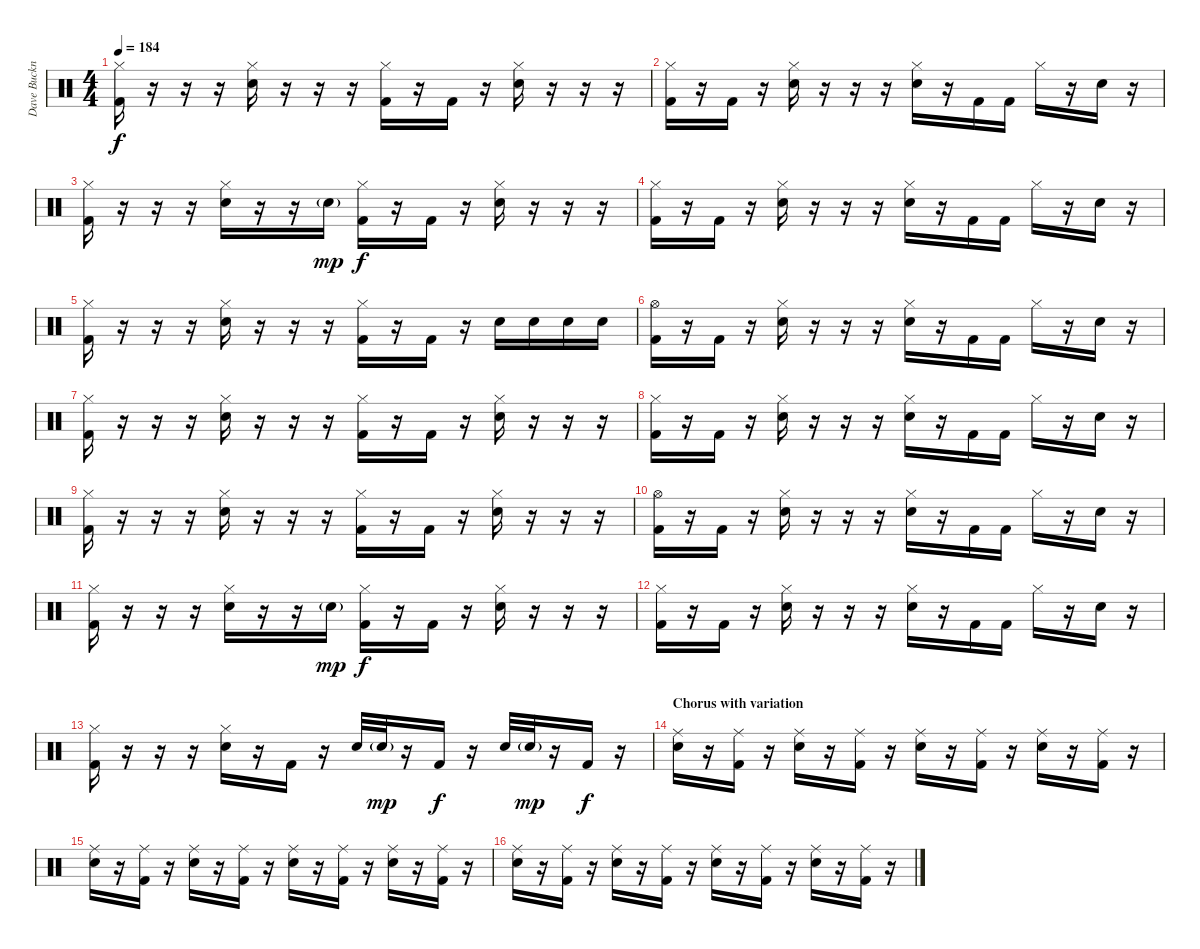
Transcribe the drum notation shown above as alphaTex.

\track ("Dave Buckner" "Dave Buckn") {instrument percussion}
\staff {score}
\articulation defaults
\ts (4 4)
\tempo 184
\clef neutral
\ks c
("Hi-Hat (closed)" "Kick (hit) 2").16{dy f} r.16 r.16 r.16 ("Hi-Hat (closed)" "Snare (hit) 2").16 r.16 r.16 r.16 ("Hi-Hat (closed)" "Kick (hit) 2").16 r.16 "Kick (hit) 2".16 r.16 ("Hi-Hat (closed)" "Snare (hit) 2").16 r.16 r.16 r.16 |
("Hi-Hat (closed)" "Kick (hit) 2").16 r.16 "Kick (hit) 2".16 r.16 ("Hi-Hat (closed)" "Snare (hit) 2").16 r.16 r.16 r.16 ("Hi-Hat (closed)" "Snare (hit) 2").16 r.16 "Kick (hit) 2".16 "Kick (hit) 2".16 "Hi-Hat (closed)".16 r.16 "Snare (hit) 2".16 r.16 |
("Hi-Hat (closed)" "Kick (hit) 2").16 r.16 r.16 r.16 ("Hi-Hat (closed)" "Snare (hit) 2").16 r.16 r.16 "Snare (hit) 2"{g}.16{dy mp} ("Hi-Hat (closed)" "Kick (hit) 2").16{dy f} r.16 "Kick (hit) 2".16 r.16 ("Hi-Hat (closed)" "Snare (hit) 2").16 r.16 r.16 r.16 |
("Hi-Hat (closed)" "Kick (hit) 2").16 r.16 "Kick (hit) 2".16 r.16 ("Hi-Hat (closed)" "Snare (hit) 2").16 r.16 r.16 r.16 ("Hi-Hat (closed)" "Snare (hit) 2").16 r.16 "Kick (hit) 2".16 "Kick (hit) 2".16 "Hi-Hat (closed)".16 r.16 "Snare (hit) 2".16 r.16 |
("Hi-Hat (closed)" "Kick (hit) 2").16 r.16 r.16 r.16 ("Hi-Hat (closed)" "Snare (hit) 2").16 r.16 r.16 r.16 ("Hi-Hat (closed)" "Kick (hit) 2").16 r.16 "Kick (hit) 2".16 r.16 "Snare (hit) 2".16 "Snare (hit) 2".16 "Snare (hit) 2".16 "Snare (hit) 2".16 |
("Hi-Hat (open)" "Kick (hit) 2").16 r.16 "Kick (hit) 2".16 r.16 ("Hi-Hat (closed)" "Snare (hit) 2").16 r.16 r.16 r.16 ("Hi-Hat (closed)" "Snare (hit) 2").16 r.16 "Kick (hit) 2".16 "Kick (hit) 2".16 "Hi-Hat (closed)".16 r.16 "Snare (hit) 2".16 r.16 |
("Hi-Hat (closed)" "Kick (hit) 2").16 r.16 r.16 r.16 ("Hi-Hat (closed)" "Snare (hit) 2").16 r.16 r.16 r.16 ("Hi-Hat (closed)" "Kick (hit) 2").16 r.16 "Kick (hit) 2".16 r.16 ("Hi-Hat (closed)" "Snare (hit) 2").16 r.16 r.16 r.16 |
("Hi-Hat (closed)" "Kick (hit) 2").16 r.16 "Kick (hit) 2".16 r.16 ("Hi-Hat (closed)" "Snare (hit) 2").16 r.16 r.16 r.16 ("Hi-Hat (closed)" "Snare (hit) 2").16 r.16 "Kick (hit) 2".16 "Kick (hit) 2".16 "Hi-Hat (closed)".16 r.16 "Snare (hit) 2".16 r.16 |
("Hi-Hat (closed)" "Kick (hit) 2").16 r.16 r.16 r.16 ("Hi-Hat (closed)" "Snare (hit) 2").16 r.16 r.16 r.16 ("Hi-Hat (closed)" "Kick (hit) 2").16 r.16 "Kick (hit) 2".16 r.16 ("Hi-Hat (closed)" "Snare (hit) 2").16 r.16 r.16 r.16 |
("Hi-Hat (open)" "Kick (hit) 2").16 r.16 "Kick (hit) 2".16 r.16 ("Hi-Hat (closed)" "Snare (hit) 2").16 r.16 r.16 r.16 ("Hi-Hat (closed)" "Snare (hit) 2").16 r.16 "Kick (hit) 2".16 "Kick (hit) 2".16 "Hi-Hat (closed)".16 r.16 "Snare (hit) 2".16 r.16 |
("Hi-Hat (closed)" "Kick (hit) 2").16 r.16 r.16 r.16 ("Hi-Hat (closed)" "Snare (hit) 2").16 r.16 r.16 "Snare (hit) 2"{g}.16{dy mp} ("Hi-Hat (closed)" "Kick (hit) 2").16{dy f} r.16 "Kick (hit) 2".16 r.16 ("Hi-Hat (closed)" "Snare (hit) 2").16 r.16 r.16 r.16 |
("Hi-Hat (closed)" "Kick (hit) 2").16 r.16 "Kick (hit) 2".16 r.16 ("Hi-Hat (closed)" "Snare (hit) 2").16 r.16 r.16 r.16 ("Hi-Hat (closed)" "Snare (hit) 2").16 r.16 "Kick (hit) 2".16 "Kick (hit) 2".16 "Hi-Hat (closed)".16 r.16 "Snare (hit) 2".16 r.16 |
("Hi-Hat (closed)" "Kick (hit) 2").16 r.16 r.16 r.16 ("Hi-Hat (closed)" "Snare (hit) 2").16 r.16 "Kick (hit) 2".16 r.16 "Snare (hit) 2".32 "Snare (hit) 2"{g}.32{dy mp} r.16 "Kick (hit) 2".16{dy f} r.16 "Snare (hit) 2".32 "Snare (hit) 2"{g}.32{dy mp} r.16 "Kick (hit) 2".16{dy f} r.16 |
\section ("" "Chorus with variation")
("Ride (middle)" "Snare (hit) 2").16 r.16 ("Ride (middle)" "Kick (hit) 2").16 r.16 ("Ride (middle)" "Snare (hit) 2").16 r.16 ("Ride (middle)" "Kick (hit) 2").16 r.16 ("Ride (middle)" "Snare (hit) 2").16 r.16 ("Ride (middle)" "Kick (hit) 2").16 r.16 ("Ride (middle)" "Snare (hit) 2").16 r.16 ("Ride (middle)" "Kick (hit) 2").16 r.16 |
("Ride (middle)" "Snare (hit) 2").16 r.16 ("Ride (middle)" "Kick (hit) 2").16 r.16 ("Ride (middle)" "Snare (hit) 2").16 r.16 ("Ride (middle)" "Kick (hit) 2").16 r.16 ("Ride (middle)" "Snare (hit) 2").16 r.16 ("Ride (middle)" "Kick (hit) 2").16 r.16 ("Ride (middle)" "Snare (hit) 2").16 r.16 ("Ride (middle)" "Kick (hit) 2").16 r.16 |
("Ride (middle)" "Snare (hit) 2").16 r.16 ("Ride (middle)" "Kick (hit) 2").16 r.16 ("Ride (middle)" "Snare (hit) 2").16 r.16 ("Ride (middle)" "Kick (hit) 2").16 r.16 ("Ride (middle)" "Snare (hit) 2").16 r.16 ("Ride (middle)" "Kick (hit) 2").16 r.16 ("Ride (middle)" "Snare (hit) 2").16 r.16 ("Ride (middle)" "Kick (hit) 2").16 r.16
